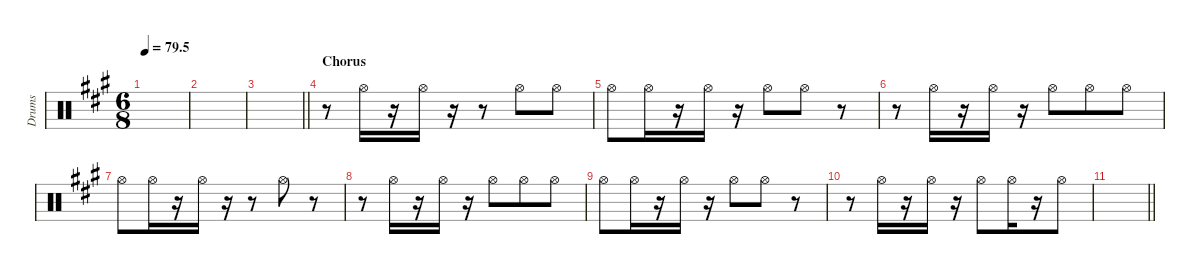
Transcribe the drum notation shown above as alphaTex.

\defaultSystemsLayout 4
\hideDynamics
\bracketExtendMode nobrackets
\otherSystemsTrackNameOrientation horizontal
\track ("Hihat" "Drums") {instrument percussion}
\staff {score}
\articulation defaults
\ts (6 8)
\tempo
79.5
\accidentals auto
\clef neutral
\ottava regular
\simile none
\scale
0.333333
\ks a
|
\scale
0.333333 |
\scale
0.333333
\barLineRight lightlight
|
\section ("" "Chorus")
\scale
0.333333 r.8 "Hi-Hat (open)"{acc forcenatural}.16 r.16 "Hi-Hat (open)"{acc forcenatural}.16 r.16 r.8 "Hi-Hat (open)"{acc forcenatural}.8 "Hi-Hat (open)"{acc forcenatural}.8 |
\scale
0.333333 "Hi-Hat (open)"{acc forcenatural}.8 "Hi-Hat (open)"{acc forcenatural}.16 r.16 "Hi-Hat (open)"{acc forcenatural}.16 r.16 "Hi-Hat (open)"{acc forcenatural}.8 "Hi-Hat (open)"{acc forcenatural}.8 r.8 |
\scale
0.333333 r.8 "Hi-Hat (open)"{acc forcenatural}.16 r.16 "Hi-Hat (open)"{acc forcenatural}.16 r.16 "Hi-Hat (open)"{acc forcenatural}.8 "Hi-Hat (open)"{acc forcenatural}.8 "Hi-Hat (open)"{acc forcenatural}.8 |
\scale
0.333333 "Hi-Hat (open)"{acc forcenatural}.8 "Hi-Hat (open)"{acc forcenatural}.16 r.16 "Hi-Hat (open)"{acc forcenatural}.16 r.16 r.8 "Hi-Hat (open)"{acc forcenatural}.8 r.8 |
\scale
0.333333 r.8 "Hi-Hat (open)"{acc forcenatural}.16 r.16 "Hi-Hat (open)"{acc forcenatural}.16 r.16 "Hi-Hat (open)"{acc forcenatural}.8 "Hi-Hat (open)"{acc forcenatural}.8 "Hi-Hat (open)"{acc forcenatural}.8 |
\scale
0.333333 "Hi-Hat (open)"{acc forcenatural}.8 "Hi-Hat (open)"{acc forcenatural}.16 r.16 "Hi-Hat (open)"{acc forcenatural}.16 r.16 "Hi-Hat (open)"{acc forcenatural}.8 "Hi-Hat (open)"{acc forcenatural}.8 r.8 |
\scale
0.333333 r.8 "Hi-Hat (open)"{acc forcenatural}.16 r.16 "Hi-Hat (open)"{acc forcenatural}.16 r.16 "Hi-Hat (open)"{acc forcenatural}.8 "Hi-Hat (open)"{acc forcenatural}.16 r.16 "Hi-Hat (open)"{acc forcenatural}.8 |
\scale
0.333333
\barLineRight lightlight
|
\scale
0.333333 |
\scale
0.333333 |
\scale
0.333333 |
\scale
0.333333 |
\scale
0.333333
